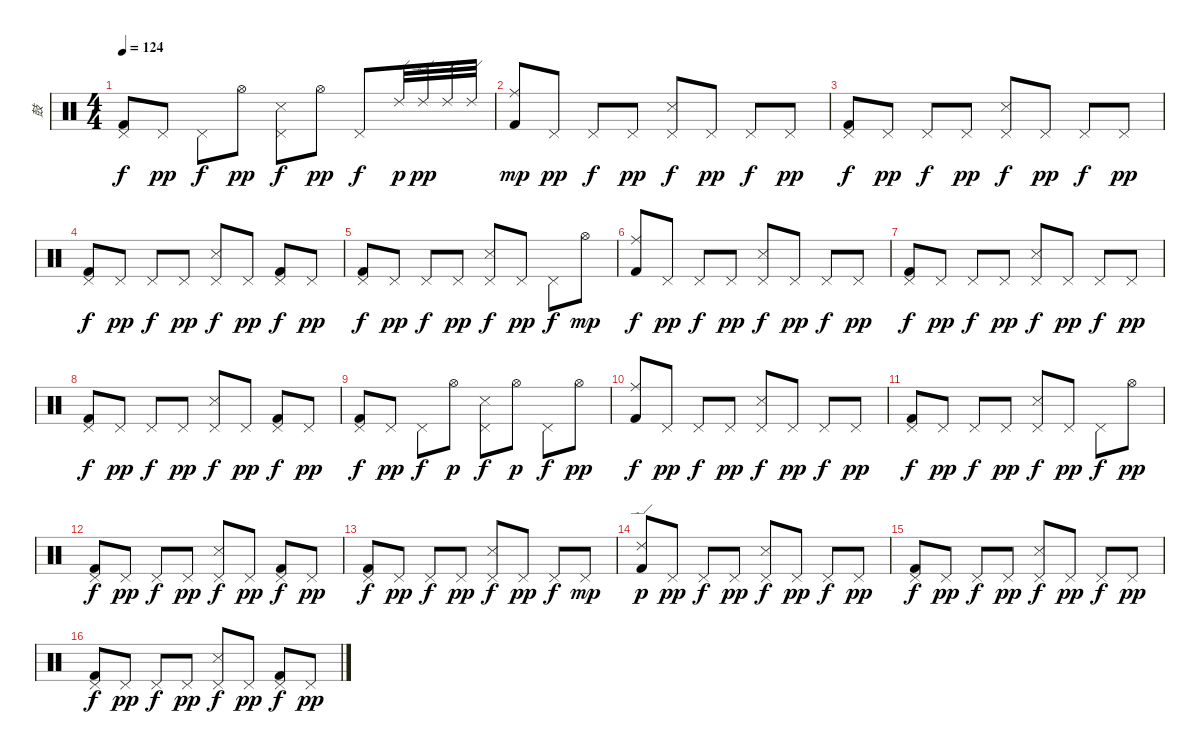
\track ("鼓" "鼓") {instrument percussion}
\staff {score}
\articulation defaults
\ts (4 4)
\tempo 124
\clef neutral
\ks c
("Kick (hit) 2" "Pedal Hi-Hat (hit)").8{dy f} "Pedal Hi-Hat (hit)".8{dy pp} "Pedal Hi-Hat (hit)".8{dy f} "Hi-Hat (open)".8{dy pp} ("Snare (side stick) 3" "Pedal Hi-Hat (hit)").8{dy f} "Hi-Hat (open)".8{dy pp} "Pedal Hi-Hat (hit)".8{dy f} "Ride (edge) 2".32{dy p} "Ride (edge) 2".32{dy pp} "Ride (edge) 2".32 "Ride (edge) 2".32 |
("Kick (hit) 2" "Ride (middle)").8{dy mp} "Pedal Hi-Hat (hit)".8{dy pp} "Pedal Hi-Hat (hit)".8{dy f} "Pedal Hi-Hat (hit)".8{dy pp} ("Snare (side stick) 3" "Pedal Hi-Hat (hit)").8{dy f} "Pedal Hi-Hat (hit)".8{dy pp} "Pedal Hi-Hat (hit)".8{dy f} "Pedal Hi-Hat (hit)".8{dy pp} |
("Kick (hit) 2" "Pedal Hi-Hat (hit)").8{dy f} "Pedal Hi-Hat (hit)".8{dy pp} "Pedal Hi-Hat (hit)".8{dy f} "Pedal Hi-Hat (hit)".8{dy pp} ("Snare (side stick) 3" "Pedal Hi-Hat (hit)").8{dy f} "Pedal Hi-Hat (hit)".8{dy pp} "Pedal Hi-Hat (hit)".8{dy f} "Pedal Hi-Hat (hit)".8{dy pp} |
("Kick (hit) 2" "Pedal Hi-Hat (hit)").8{dy f} "Pedal Hi-Hat (hit)".8{dy pp} "Pedal Hi-Hat (hit)".8{dy f} "Pedal Hi-Hat (hit)".8{dy pp} ("Snare (side stick) 3" "Pedal Hi-Hat (hit)").8{dy f} "Pedal Hi-Hat (hit)".8{dy pp} ("Kick (hit) 2" "Pedal Hi-Hat (hit)").8{dy f} "Pedal Hi-Hat (hit)".8{dy pp} |
("Kick (hit) 2" "Pedal Hi-Hat (hit)").8{dy f} "Pedal Hi-Hat (hit)".8{dy pp} "Pedal Hi-Hat (hit)".8{dy f} "Pedal Hi-Hat (hit)".8{dy pp} ("Snare (side stick) 3" "Pedal Hi-Hat (hit)").8{dy f} "Pedal Hi-Hat (hit)".8{dy pp} "Pedal Hi-Hat (hit)".8{dy f} "Hi-Hat (open)".8{dy mp} |
("Kick (hit) 2" "Ride (middle)").8{dy f} "Pedal Hi-Hat (hit)".8{dy pp} "Pedal Hi-Hat (hit)".8{dy f} "Pedal Hi-Hat (hit)".8{dy pp} ("Snare (side stick) 3" "Pedal Hi-Hat (hit)").8{dy f} "Pedal Hi-Hat (hit)".8{dy pp} "Pedal Hi-Hat (hit)".8{dy f} "Pedal Hi-Hat (hit)".8{dy pp} |
("Kick (hit) 2" "Pedal Hi-Hat (hit)").8{dy f} "Pedal Hi-Hat (hit)".8{dy pp} "Pedal Hi-Hat (hit)".8{dy f} "Pedal Hi-Hat (hit)".8{dy pp} ("Snare (side stick) 3" "Pedal Hi-Hat (hit)").8{dy f} "Pedal Hi-Hat (hit)".8{dy pp} "Pedal Hi-Hat (hit)".8{dy f} "Pedal Hi-Hat (hit)".8{dy pp} |
("Kick (hit) 2" "Pedal Hi-Hat (hit)").8{dy f} "Pedal Hi-Hat (hit)".8{dy pp} "Pedal Hi-Hat (hit)".8{dy f} "Pedal Hi-Hat (hit)".8{dy pp} ("Snare (side stick) 3" "Pedal Hi-Hat (hit)").8{dy f} "Pedal Hi-Hat (hit)".8{dy pp} ("Kick (hit) 2" "Pedal Hi-Hat (hit)").8{dy f} "Pedal Hi-Hat (hit)".8{dy pp} |
("Kick (hit) 2" "Pedal Hi-Hat (hit)").8{dy f} "Pedal Hi-Hat (hit)".8{dy pp} "Pedal Hi-Hat (hit)".8{dy f} "Hi-Hat (open)".8{dy p} ("Snare (side stick) 3" "Pedal Hi-Hat (hit)").8{dy f} "Hi-Hat (open)".8{dy p} "Pedal Hi-Hat (hit)".8{dy f} "Hi-Hat (open)".8{dy pp} |
("Kick (hit) 2" "Ride (middle)").8{dy f} "Pedal Hi-Hat (hit)".8{dy pp} "Pedal Hi-Hat (hit)".8{dy f} "Pedal Hi-Hat (hit)".8{dy pp} ("Snare (side stick) 3" "Pedal Hi-Hat (hit)").8{dy f} "Pedal Hi-Hat (hit)".8{dy pp} "Pedal Hi-Hat (hit)".8{dy f} "Pedal Hi-Hat (hit)".8{dy pp} |
("Kick (hit) 2" "Pedal Hi-Hat (hit)").8{dy f} "Pedal Hi-Hat (hit)".8{dy pp} "Pedal Hi-Hat (hit)".8{dy f} "Pedal Hi-Hat (hit)".8{dy pp} ("Snare (side stick) 3" "Pedal Hi-Hat (hit)").8{dy f} "Pedal Hi-Hat (hit)".8{dy pp} "Pedal Hi-Hat (hit)".8{dy f} "Hi-Hat (open)".8{dy pp} |
("Kick (hit) 2" "Pedal Hi-Hat (hit)").8{dy f} "Pedal Hi-Hat (hit)".8{dy pp} "Pedal Hi-Hat (hit)".8{dy f} "Pedal Hi-Hat (hit)".8{dy pp} ("Snare (side stick) 3" "Pedal Hi-Hat (hit)").8{dy f} "Pedal Hi-Hat (hit)".8{dy pp} ("Kick (hit) 2" "Pedal Hi-Hat (hit)").8{dy f} "Pedal Hi-Hat (hit)".8{dy pp} |
("Kick (hit) 2" "Pedal Hi-Hat (hit)").8{dy f} "Pedal Hi-Hat (hit)".8{dy pp} "Pedal Hi-Hat (hit)".8{dy f} "Pedal Hi-Hat (hit)".8{dy pp} ("Snare (side stick) 3" "Pedal Hi-Hat (hit)").8{dy f} "Pedal Hi-Hat (hit)".8{dy pp} "Pedal Hi-Hat (hit)".8{dy f} "Pedal Hi-Hat (hit)".8{dy mp} |
("Kick (hit) 2" "Ride (edge) 2").8{dy p} "Pedal Hi-Hat (hit)".8{dy pp} "Pedal Hi-Hat (hit)".8{dy f} "Pedal Hi-Hat (hit)".8{dy pp} ("Snare (side stick) 3" "Pedal Hi-Hat (hit)").8{dy f} "Pedal Hi-Hat (hit)".8{dy pp} "Pedal Hi-Hat (hit)".8{dy f} "Pedal Hi-Hat (hit)".8{dy pp} |
("Kick (hit) 2" "Pedal Hi-Hat (hit)").8{dy f} "Pedal Hi-Hat (hit)".8{dy pp} "Pedal Hi-Hat (hit)".8{dy f} "Pedal Hi-Hat (hit)".8{dy pp} ("Snare (side stick) 3" "Pedal Hi-Hat (hit)").8{dy f} "Pedal Hi-Hat (hit)".8{dy pp} "Pedal Hi-Hat (hit)".8{dy f} "Pedal Hi-Hat (hit)".8{dy pp} |
("Kick (hit) 2" "Pedal Hi-Hat (hit)").8{dy f} "Pedal Hi-Hat (hit)".8{dy pp} "Pedal Hi-Hat (hit)".8{dy f} "Pedal Hi-Hat (hit)".8{dy pp} ("Snare (side stick) 3" "Pedal Hi-Hat (hit)").8{dy f} "Pedal Hi-Hat (hit)".8{dy pp} ("Kick (hit) 2" "Pedal Hi-Hat (hit)").8{dy f} "Pedal Hi-Hat (hit)".8{dy pp}
